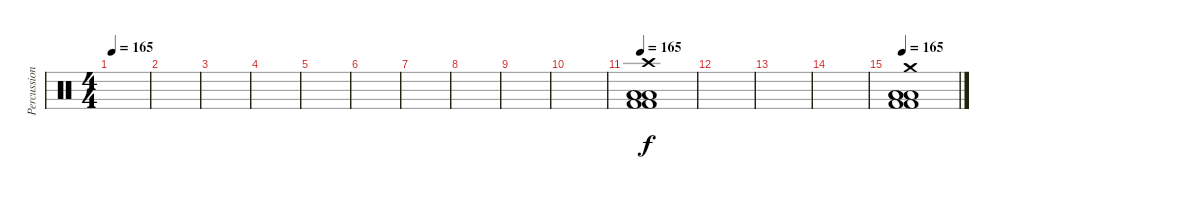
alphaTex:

\track ("Percussion super dubbs" "Percussion") {instrument percussion}
\staff {score}
\articulation defaults
\ts (4 4)
\tempo 165
\clef neutral
\ks c
|
|
|
|
|
|
|
|
|
|
\tempo 165
("Crash high (hit)" "Low Floor Tom (hit)" "Low Floor Tom (hit)" "Low Floor Tom (hit)" "Kick (hit) 2" "Kick (hit) 2").1{balance 16} |
|
|
|
\tempo 165
("Crash medium (hit)" "Low Floor Tom (hit)" "Low Floor Tom (hit)" "Low Floor Tom (hit)" "Kick (hit) 2" "Kick (hit) 2").1
